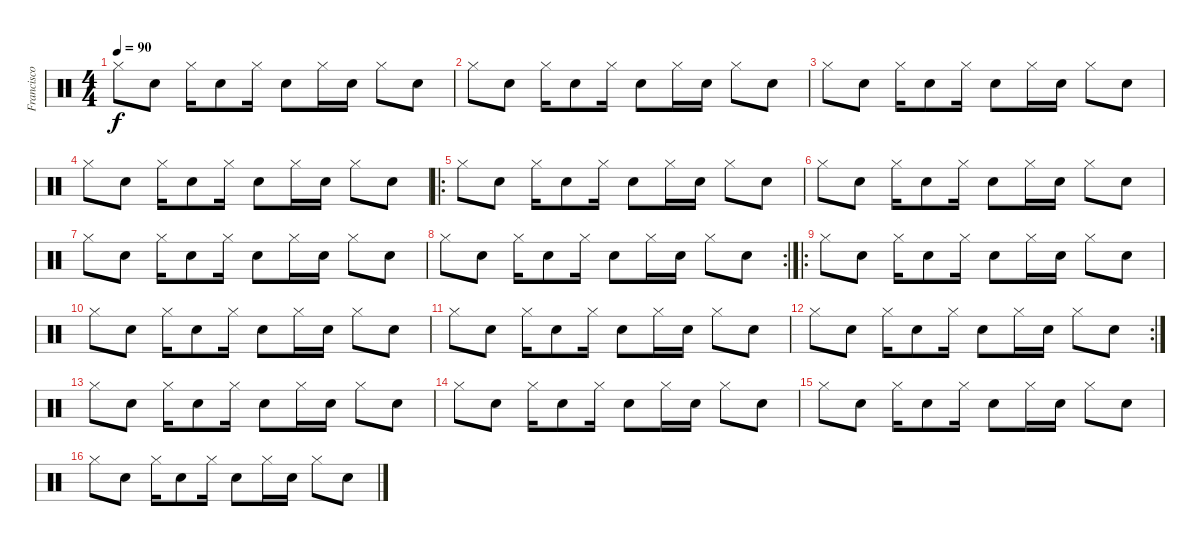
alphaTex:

\track ("Francisco (batería)" "Francisco ") {instrument percussion}
\staff {score}
\articulation defaults
\ts (4 4)
\tempo 90
\clef neutral
\ks c "Hi-Hat (closed)".8{dy f} "Hand Clap (hit)".8 "Hi-Hat (closed)".16 "Hand Clap (hit)".8 "Hi-Hat (closed)".16 "Hand Clap (hit)".8 "Hi-Hat (closed)".16 "Hand Clap (hit)".16 "Hi-Hat (closed)".8 "Hand Clap (hit)".8
|
"Hi-Hat (closed)".8 "Hand Clap (hit)".8 "Hi-Hat (closed)".16 "Hand Clap (hit)".8 "Hi-Hat (closed)".16 "Hand Clap (hit)".8 "Hi-Hat (closed)".16 "Hand Clap (hit)".16 "Hi-Hat (closed)".8 "Hand Clap (hit)".8 |
"Hi-Hat (closed)".8 "Hand Clap (hit)".8 "Hi-Hat (closed)".16 "Hand Clap (hit)".8 "Hi-Hat (closed)".16 "Hand Clap (hit)".8 "Hi-Hat (closed)".16 "Hand Clap (hit)".16 "Hi-Hat (closed)".8 "Hand Clap (hit)".8 |
"Hi-Hat (closed)".8 "Hand Clap (hit)".8 "Hi-Hat (closed)".16 "Hand Clap (hit)".8 "Hi-Hat (closed)".16 "Hand Clap (hit)".8 "Hi-Hat (closed)".16 "Hand Clap (hit)".16 "Hi-Hat (closed)".8 "Hand Clap (hit)".8 |
\ro "Hi-Hat (closed)".8 "Hand Clap (hit)".8 "Hi-Hat (closed)".16 "Hand Clap (hit)".8 "Hi-Hat (closed)".16 "Hand Clap (hit)".8 "Hi-Hat (closed)".16 "Hand Clap (hit)".16 "Hi-Hat (closed)".8 "Hand Clap (hit)".8
|
"Hi-Hat (closed)".8 "Hand Clap (hit)".8 "Hi-Hat (closed)".16 "Hand Clap (hit)".8 "Hi-Hat (closed)".16 "Hand Clap (hit)".8 "Hi-Hat (closed)".16 "Hand Clap (hit)".16 "Hi-Hat (closed)".8 "Hand Clap (hit)".8 |
"Hi-Hat (closed)".8 "Hand Clap (hit)".8 "Hi-Hat (closed)".16 "Hand Clap (hit)".8 "Hi-Hat (closed)".16 "Hand Clap (hit)".8 "Hi-Hat (closed)".16 "Hand Clap (hit)".16 "Hi-Hat (closed)".8 "Hand Clap (hit)".8 |
\rc 2 "Hi-Hat (closed)".8 "Hand Clap (hit)".8 "Hi-Hat (closed)".16 "Hand Clap (hit)".8 "Hi-Hat (closed)".16 "Hand Clap (hit)".8 "Hi-Hat (closed)".16 "Hand Clap (hit)".16 "Hi-Hat (closed)".8 "Hand Clap (hit)".8
|
\ro "Hi-Hat (closed)".8 "Hand Clap (hit)".8 "Hi-Hat (closed)".16 "Hand Clap (hit)".8 "Hi-Hat (closed)".16 "Hand Clap (hit)".8 "Hi-Hat (closed)".16 "Hand Clap (hit)".16 "Hi-Hat (closed)".8 "Hand Clap (hit)".8
|
"Hi-Hat (closed)".8 "Hand Clap (hit)".8 "Hi-Hat (closed)".16 "Hand Clap (hit)".8 "Hi-Hat (closed)".16 "Hand Clap (hit)".8 "Hi-Hat (closed)".16 "Hand Clap (hit)".16 "Hi-Hat (closed)".8 "Hand Clap (hit)".8 |
"Hi-Hat (closed)".8 "Hand Clap (hit)".8 "Hi-Hat (closed)".16 "Hand Clap (hit)".8 "Hi-Hat (closed)".16 "Hand Clap (hit)".8 "Hi-Hat (closed)".16 "Hand Clap (hit)".16 "Hi-Hat (closed)".8 "Hand Clap (hit)".8 |
\rc 2 "Hi-Hat (closed)".8 "Hand Clap (hit)".8 "Hi-Hat (closed)".16 "Hand Clap (hit)".8 "Hi-Hat (closed)".16 "Hand Clap (hit)".8 "Hi-Hat (closed)".16 "Hand Clap (hit)".16 "Hi-Hat (closed)".8 "Hand Clap (hit)".8
|
"Hi-Hat (closed)".8 "Hand Clap (hit)".8 "Hi-Hat (closed)".16 "Hand Clap (hit)".8 "Hi-Hat (closed)".16 "Hand Clap (hit)".8 "Hi-Hat (closed)".16 "Hand Clap (hit)".16 "Hi-Hat (closed)".8 "Hand Clap (hit)".8 |
"Hi-Hat (closed)".8 "Hand Clap (hit)".8 "Hi-Hat (closed)".16 "Hand Clap (hit)".8 "Hi-Hat (closed)".16 "Hand Clap (hit)".8 "Hi-Hat (closed)".16 "Hand Clap (hit)".16 "Hi-Hat (closed)".8 "Hand Clap (hit)".8 |
"Hi-Hat (closed)".8 "Hand Clap (hit)".8 "Hi-Hat (closed)".16 "Hand Clap (hit)".8 "Hi-Hat (closed)".16 "Hand Clap (hit)".8 "Hi-Hat (closed)".16 "Hand Clap (hit)".16 "Hi-Hat (closed)".8 "Hand Clap (hit)".8 |
"Hi-Hat (closed)".8 "Hand Clap (hit)".8 "Hi-Hat (closed)".16 "Hand Clap (hit)".8 "Hi-Hat (closed)".16 "Hand Clap (hit)".8 "Hi-Hat (closed)".16 "Hand Clap (hit)".16 "Hi-Hat (closed)".8 "Hand Clap (hit)".8
